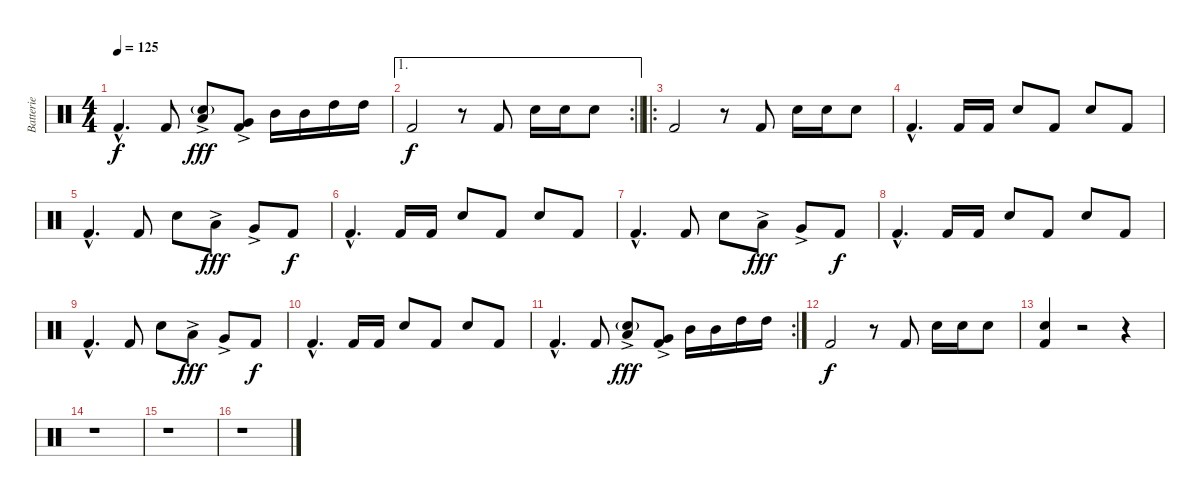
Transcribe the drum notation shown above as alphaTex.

\track ("Batterie" "Batterie") {instrument percussion}
\staff {score}
\articulation defaults
\ts (4 4)
\tempo 125
\clef neutral
\ks c "Kick (hit) 2"{hac}.4{d dy f} "Kick (hit) 2".8
("Electric Snare (hit)"{g} "Low Floor Tom (hit)"{ac}).8{dy fff} ("Kick (hit) 2" "Very Low Tom (hit)"{ac}).8 "Mid Tom (hit)".16 "Mid Tom (hit)".16 "High Tom (hit)".16 "High Tom (hit)".16 |
\ae 1
\rc 2
\barLineRight lightlight "Kick (hit) 2".2{dy f}
r.8 "Kick (hit) 2".8 "Electric Snare (hit)".16 "Electric Snare (hit)".16 "Electric Snare (hit)".8 |
\ro "Kick (hit) 2".2
r.8 "Kick (hit) 2".8 "Electric Snare (hit)".16 "Electric Snare (hit)".16 "Electric Snare (hit)".8 |
"Kick (hit) 2"{hac}.4{d} "Kick (hit) 2".16 "Kick (hit) 2".16 "Electric Snare (hit)".8 "Kick (hit) 2".8 "Electric Snare (hit)".8 "Kick (hit) 2".8 |
"Kick (hit) 2"{hac}.4{d} "Kick (hit) 2".8 "Electric Snare (hit)".8 "Low Floor Tom (hit)"{ac}.8{dy fff} "Very Low Tom (hit)"{ac}.8 "Kick (hit) 2".8{dy f} |
"Kick (hit) 2"{hac}.4{d} "Kick (hit) 2".16 "Kick (hit) 2".16 "Electric Snare (hit)".8 "Kick (hit) 2".8 "Electric Snare (hit)".8 "Kick (hit) 2".8 |
"Kick (hit) 2"{hac}.4{d} "Kick (hit) 2".8 "Electric Snare (hit)".8 "Low Floor Tom (hit)"{ac}.8{dy fff} "Very Low Tom (hit)"{ac}.8 "Kick (hit) 2".8{dy f} |
"Kick (hit) 2"{hac}.4{d} "Kick (hit) 2".16 "Kick (hit) 2".16 "Electric Snare (hit)".8 "Kick (hit) 2".8 "Electric Snare (hit)".8 "Kick (hit) 2".8 |
"Kick (hit) 2"{hac}.4{d} "Kick (hit) 2".8 "Electric Snare (hit)".8 "Low Floor Tom (hit)"{ac}.8{dy fff} "Very Low Tom (hit)"{ac}.8 "Kick (hit) 2".8{dy f} |
"Kick (hit) 2"{hac}.4{d} "Kick (hit) 2".16 "Kick (hit) 2".16 "Electric Snare (hit)".8 "Kick (hit) 2".8 "Electric Snare (hit)".8 "Kick (hit) 2".8 |
\rc 2 "Kick (hit) 2"{hac}.4{d} "Kick (hit) 2".8
("Electric Snare (hit)"{g} "Low Floor Tom (hit)"{ac}).8{dy fff} ("Kick (hit) 2" "Very Low Tom (hit)"{ac}).8 "Mid Tom (hit)".16 "Mid Tom (hit)".16 "High Tom (hit)".16 "High Tom (hit)".16 |
"Kick (hit) 2".2{dy f} r.8 "Kick (hit) 2".8 "Electric Snare (hit)".16 "Electric Snare (hit)".16 "Electric Snare (hit)".8 |
("Kick (hit) 2" "Electric Snare (hit)").4 r.2 r.4 |
r.1 |
r.1 |
r.1
